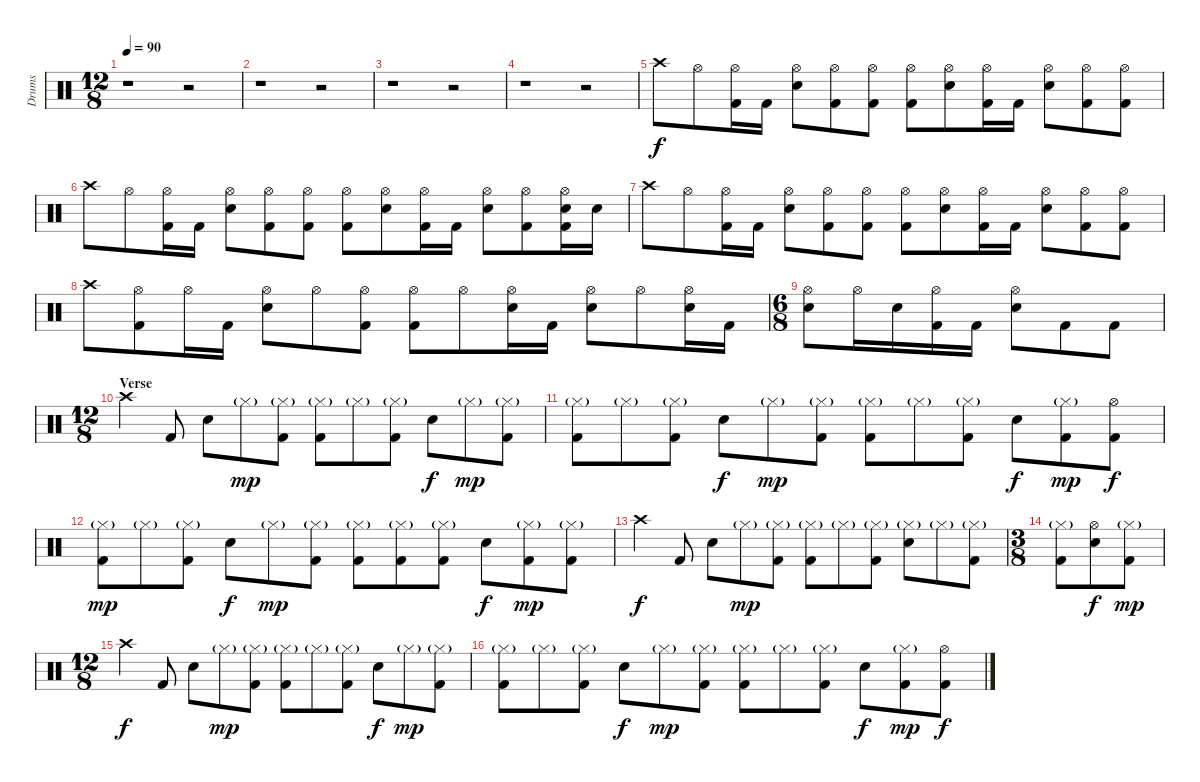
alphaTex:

\track ("Drums" "Drums") {instrument percussion}
\staff {score}
\articulation defaults
\ts (12 8)
\tempo 90
\clef neutral
\ks c
r.1{dy f} r.2 |
r.1 r.2 |
r.1 r.2 |
r.1 r.2 |
"Crash high (hit)".8 "Hi-Hat (open)".8 ("Hi-Hat (open)" "Kick (hit) 2").16 "Kick (hit) 2".16 ("Hi-Hat (open)" "Electric Snare (hit)").8 ("Hi-Hat (open)" "Kick (hit) 2").8 ("Hi-Hat (open)" "Kick (hit) 2").8 ("Hi-Hat (open)" "Kick (hit) 2").8 ("Hi-Hat (open)" "Electric Snare (hit)").8 ("Hi-Hat (open)" "Kick (hit) 2").16 "Kick (hit) 2".16 ("Hi-Hat (open)" "Electric Snare (hit)").8 ("Hi-Hat (open)" "Kick (hit) 2").8 ("Hi-Hat (open)" "Kick (hit) 2").8 |
"Crash high (hit)".8 "Hi-Hat (open)".8 ("Hi-Hat (open)" "Kick (hit) 2").16 "Kick (hit) 2".16 ("Hi-Hat (open)" "Electric Snare (hit)").8 ("Hi-Hat (open)" "Kick (hit) 2").8 ("Hi-Hat (open)" "Kick (hit) 2").8 ("Hi-Hat (open)" "Kick (hit) 2").8 ("Hi-Hat (open)" "Electric Snare (hit)").8 ("Hi-Hat (open)" "Kick (hit) 2").16 "Kick (hit) 2".16 ("Hi-Hat (open)" "Electric Snare (hit)").8 ("Hi-Hat (open)" "Kick (hit) 2").8 ("Hi-Hat (open)" "Electric Snare (hit)" "Kick (hit) 2").16 "Electric Snare (hit)".16 |
"Crash high (hit)".8 "Hi-Hat (open)".8 ("Hi-Hat (open)" "Kick (hit) 2").16 "Kick (hit) 2".16 ("Hi-Hat (open)" "Electric Snare (hit)").8 ("Hi-Hat (open)" "Kick (hit) 2").8 ("Hi-Hat (open)" "Kick (hit) 2").8 ("Hi-Hat (open)" "Kick (hit) 2").8 ("Hi-Hat (open)" "Electric Snare (hit)").8 ("Hi-Hat (open)" "Kick (hit) 2").16 "Kick (hit) 2".16 ("Hi-Hat (open)" "Electric Snare (hit)").8 ("Hi-Hat (open)" "Kick (hit) 2").8 ("Hi-Hat (open)" "Kick (hit) 2").8 |
"Crash high (hit)".8 ("Hi-Hat (open)" "Kick (hit) 2").8 "Hi-Hat (open)".16 "Kick (hit) 2".16 ("Hi-Hat (open)" "Electric Snare (hit)").8 "Hi-Hat (open)".8 ("Hi-Hat (open)" "Kick (hit) 2").8 ("Hi-Hat (open)" "Kick (hit) 2").8 "Hi-Hat (open)".8 ("Hi-Hat (open)" "Electric Snare (hit)").16 "Kick (hit) 2".16 ("Hi-Hat (open)" "Electric Snare (hit)").8 "Hi-Hat (open)".8 ("Hi-Hat (open)" "Electric Snare (hit)").16 "Kick (hit) 2".16 |
\ts (6 8)
("Hi-Hat (open)" "Electric Snare (hit)").8 "Hi-Hat (open)".16 "Electric Snare (hit)".16 ("Hi-Hat (open)" "Kick (hit) 2").16 "Kick (hit) 2".16 ("Hi-Hat (open)" "Electric Snare (hit)").8 "Kick (hit) 2".8 "Kick (hit) 2".8 |
\ts (12 8)
\section ("" "Verse")
"Crash high (hit)".4 "Kick (hit) 2".8 "Electric Snare (hit)".8 "Hi-Hat (closed)"{g}.8{dy mp} ("Hi-Hat (closed)"{g} "Kick (hit) 2").8 ("Hi-Hat (closed)"{g} "Kick (hit) 2").8 "Hi-Hat (closed)"{g}.8 ("Hi-Hat (closed)"{g} "Kick (hit) 2").8 "Electric Snare (hit)".8{dy f} "Hi-Hat (closed)"{g}.8{dy mp} ("Hi-Hat (closed)"{g} "Kick (hit) 2").8 |
("Hi-Hat (closed)"{g} "Kick (hit) 2").8 "Hi-Hat (closed)"{g}.8 ("Hi-Hat (closed)"{g} "Kick (hit) 2").8 "Electric Snare (hit)".8{dy f} "Hi-Hat (closed)"{g}.8{dy mp} ("Hi-Hat (closed)"{g} "Kick (hit) 2").8 ("Hi-Hat (closed)"{g} "Kick (hit) 2").8 "Hi-Hat (closed)"{g}.8 ("Hi-Hat (closed)"{g} "Kick (hit) 2").8 "Electric Snare (hit)".8{dy f} ("Hi-Hat (closed)"{g} "Kick (hit) 2").8{dy mp} ("Hi-Hat (open)" "Kick (hit) 2").8{dy f} |
("Hi-Hat (closed)"{g} "Kick (hit) 2").8{dy mp} "Hi-Hat (closed)"{g}.8 ("Hi-Hat (closed)"{g} "Kick (hit) 2").8 "Electric Snare (hit)".8{dy f} "Hi-Hat (closed)"{g}.8{dy mp} ("Hi-Hat (closed)"{g} "Kick (hit) 2").8 ("Hi-Hat (closed)"{g} "Kick (hit) 2").8 ("Hi-Hat (closed)"{g} "Kick (hit) 2").8 ("Hi-Hat (closed)"{g} "Kick (hit) 2").8 "Electric Snare (hit)".8{dy f} ("Hi-Hat (closed)"{g} "Kick (hit) 2").8{dy mp} ("Hi-Hat (closed)"{g} "Kick (hit) 2").8 |
"Crash high (hit)".4{dy f} "Kick (hit) 2".8 "Electric Snare (hit)".8 "Hi-Hat (closed)"{g}.8{dy mp} ("Hi-Hat (closed)"{g} "Kick (hit) 2").8 ("Hi-Hat (closed)"{g} "Kick (hit) 2").8 "Hi-Hat (closed)"{g}.8 ("Hi-Hat (closed)"{g} "Kick (hit) 2").8 ("Hi-Hat (closed)"{g} "Electric Snare (hit)").8 "Hi-Hat (closed)"{g}.8 ("Hi-Hat (closed)"{g} "Kick (hit) 2").8 |
\ts (3 8)
("Hi-Hat (closed)"{g} "Kick (hit) 2").8 ("Hi-Hat (open)" "Electric Snare (hit)").8{dy f} ("Hi-Hat (closed)"{g} "Kick (hit) 2").8{dy mp} |
\ts (12 8)
"Crash high (hit)".4{dy f} "Kick (hit) 2".8 "Electric Snare (hit)".8 "Hi-Hat (closed)"{g}.8{dy mp} ("Hi-Hat (closed)"{g} "Kick (hit) 2").8 ("Hi-Hat (closed)"{g} "Kick (hit) 2").8 "Hi-Hat (closed)"{g}.8 ("Hi-Hat (closed)"{g} "Kick (hit) 2").8 "Electric Snare (hit)".8{dy f} "Hi-Hat (closed)"{g}.8{dy mp} ("Hi-Hat (closed)"{g} "Kick (hit) 2").8 |
("Hi-Hat (closed)"{g} "Kick (hit) 2").8 "Hi-Hat (closed)"{g}.8 ("Hi-Hat (closed)"{g} "Kick (hit) 2").8 "Electric Snare (hit)".8{dy f} "Hi-Hat (closed)"{g}.8{dy mp} ("Hi-Hat (closed)"{g} "Kick (hit) 2").8 ("Hi-Hat (closed)"{g} "Kick (hit) 2").8 "Hi-Hat (closed)"{g}.8 ("Hi-Hat (closed)"{g} "Kick (hit) 2").8 "Electric Snare (hit)".8{dy f} ("Hi-Hat (closed)"{g} "Kick (hit) 2").8{dy mp} ("Hi-Hat (open)" "Kick (hit) 2").8{dy f}
